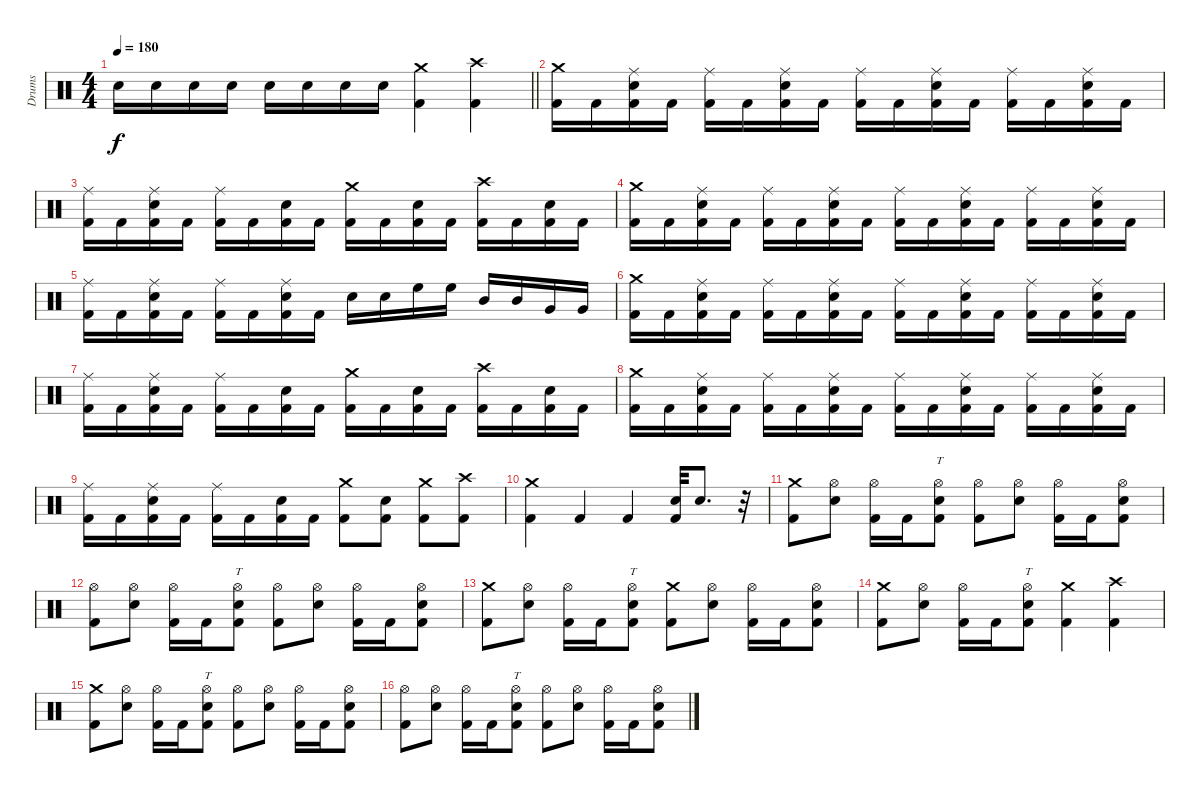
\track ("Drums" "Drums") {instrument percussion}
\staff {score}
\articulation defaults
\ts (4 4)
\tempo 180
\clef neutral
\barLineRight lightlight
\ks c "Electric Snare (hit)".16{dy f} "Electric Snare (hit)".16 "Electric Snare (hit)".16 "Electric Snare (hit)".16 "Electric Snare (hit)".16 "Electric Snare (hit)".16 "Electric Snare (hit)".16 "Electric Snare (hit)".16
("Crash medium (hit)" "Kick (hit) 2").4 ("Crash high (hit)" "Kick (hit) 2").4 |
("Crash medium (hit)" "Kick (hit) 2").16 "Kick (hit) 2".16 ("Ride (middle)" "Electric Snare (hit)" "Kick (hit) 2").16 "Kick (hit) 2".16 ("Ride (middle)" "Kick (hit) 2").16 "Kick (hit) 2".16 ("Ride (middle)" "Electric Snare (hit)" "Kick (hit) 2").16 "Kick (hit) 2".16 ("Ride (middle)" "Kick (hit) 2").16 "Kick (hit) 2".16 ("Ride (middle)" "Electric Snare (hit)" "Kick (hit) 2").16 "Kick (hit) 2".16 ("Ride (middle)" "Kick (hit) 2").16 "Kick (hit) 2".16 ("Ride (middle)" "Electric Snare (hit)" "Kick (hit) 2").16 "Kick (hit) 2".16 |
("Ride (middle)" "Kick (hit) 2").16 "Kick (hit) 2".16 ("Ride (middle)" "Electric Snare (hit)" "Kick (hit) 2").16 "Kick (hit) 2".16 ("Ride (middle)" "Kick (hit) 2").16 "Kick (hit) 2".16 ("Electric Snare (hit)" "Kick (hit) 2").16 "Kick (hit) 2".16 ("Crash medium (hit)" "Kick (hit) 2").16 "Kick (hit) 2".16 ("Electric Snare (hit)" "Kick (hit) 2").16 "Kick (hit) 2".16 ("Crash high (hit)" "Kick (hit) 2").16 "Kick (hit) 2".16 ("Electric Snare (hit)" "Kick (hit) 2").16 "Kick (hit) 2".16 |
("Crash medium (hit)" "Kick (hit) 2").16 "Kick (hit) 2".16 ("Ride (middle)" "Electric Snare (hit)" "Kick (hit) 2").16 "Kick (hit) 2".16 ("Ride (middle)" "Kick (hit) 2").16 "Kick (hit) 2".16 ("Ride (middle)" "Electric Snare (hit)" "Kick (hit) 2").16 "Kick (hit) 2".16 ("Ride (middle)" "Kick (hit) 2").16 "Kick (hit) 2".16 ("Ride (middle)" "Electric Snare (hit)" "Kick (hit) 2").16 "Kick (hit) 2".16 ("Ride (middle)" "Kick (hit) 2").16 "Kick (hit) 2".16 ("Ride (middle)" "Electric Snare (hit)" "Kick (hit) 2").16 "Kick (hit) 2".16 |
("Ride (middle)" "Kick (hit) 2").16 "Kick (hit) 2".16 ("Ride (middle)" "Electric Snare (hit)" "Kick (hit) 2").16 "Kick (hit) 2".16 ("Ride (middle)" "Kick (hit) 2").16 "Kick (hit) 2".16 ("Ride (middle)" "Electric Snare (hit)" "Kick (hit) 2").16 "Kick (hit) 2".16 "Electric Snare (hit)".16 "Electric Snare (hit)".16 "High Floor Tom (hit)".16 "High Floor Tom (hit)".16 "Mid Tom (hit)".16 "Mid Tom (hit)".16 "Very Low Tom (hit)".16 "Very Low Tom (hit)".16 |
("Crash medium (hit)" "Kick (hit) 2").16 "Kick (hit) 2".16 ("Ride (middle)" "Electric Snare (hit)" "Kick (hit) 2").16 "Kick (hit) 2".16 ("Ride (middle)" "Kick (hit) 2").16 "Kick (hit) 2".16 ("Ride (middle)" "Electric Snare (hit)" "Kick (hit) 2").16 "Kick (hit) 2".16 ("Ride (middle)" "Kick (hit) 2").16 "Kick (hit) 2".16 ("Ride (middle)" "Electric Snare (hit)" "Kick (hit) 2").16 "Kick (hit) 2".16 ("Ride (middle)" "Kick (hit) 2").16 "Kick (hit) 2".16 ("Ride (middle)" "Electric Snare (hit)" "Kick (hit) 2").16 "Kick (hit) 2".16 |
("Ride (middle)" "Kick (hit) 2").16 "Kick (hit) 2".16 ("Ride (middle)" "Electric Snare (hit)" "Kick (hit) 2").16 "Kick (hit) 2".16 ("Ride (middle)" "Kick (hit) 2").16 "Kick (hit) 2".16 ("Electric Snare (hit)" "Kick (hit) 2").16 "Kick (hit) 2".16 ("Crash medium (hit)" "Kick (hit) 2").16 "Kick (hit) 2".16 ("Electric Snare (hit)" "Kick (hit) 2").16 "Kick (hit) 2".16 ("Crash high (hit)" "Kick (hit) 2").16 "Kick (hit) 2".16 ("Electric Snare (hit)" "Kick (hit) 2").16 "Kick (hit) 2".16 |
("Crash medium (hit)" "Kick (hit) 2").16 "Kick (hit) 2".16 ("Ride (middle)" "Electric Snare (hit)" "Kick (hit) 2").16 "Kick (hit) 2".16 ("Ride (middle)" "Kick (hit) 2").16 "Kick (hit) 2".16 ("Ride (middle)" "Electric Snare (hit)" "Kick (hit) 2").16 "Kick (hit) 2".16 ("Ride (middle)" "Kick (hit) 2").16 "Kick (hit) 2".16 ("Ride (middle)" "Electric Snare (hit)" "Kick (hit) 2").16 "Kick (hit) 2".16 ("Ride (middle)" "Kick (hit) 2").16 "Kick (hit) 2".16 ("Ride (middle)" "Electric Snare (hit)" "Kick (hit) 2").16 "Kick (hit) 2".16 |
("Ride (middle)" "Kick (hit) 2").16 "Kick (hit) 2".16 ("Ride (middle)" "Electric Snare (hit)" "Kick (hit) 2").16 "Kick (hit) 2".16 ("Ride (middle)" "Kick (hit) 2").16 "Kick (hit) 2".16 ("Electric Snare (hit)" "Kick (hit) 2").16 "Kick (hit) 2".16 ("Crash medium (hit)" "Kick (hit) 2").8 ("Electric Snare (hit)" "Kick (hit) 2").8 ("Crash medium (hit)" "Kick (hit) 2").8 ("Crash high (hit)" "Kick (hit) 2").8 |
("Crash medium (hit)" "Kick (hit) 2").4 "Kick (hit) 2".4 "Kick (hit) 2".4 ("Electric Snare (hit)" "Kick (hit) 2").32 "Electric Snare (hit)".8{d} r.32 |
("Crash medium (hit)" "Kick (hit) 2").8 ("Hi-Hat (open)" "Electric Snare (hit)").8 ("Hi-Hat (open)" "Kick (hit) 2").16 "Kick (hit) 2".16 ("Hi-Hat (open)" "Electric Snare (hit)" "Kick (hit) 2").8{tt} ("Hi-Hat (open)" "Kick (hit) 2").8 ("Hi-Hat (open)" "Electric Snare (hit)").8 ("Hi-Hat (open)" "Kick (hit) 2").16 "Kick (hit) 2".16 ("Hi-Hat (open)" "Electric Snare (hit)" "Kick (hit) 2").8 |
("Hi-Hat (open)" "Kick (hit) 2").8 ("Hi-Hat (open)" "Electric Snare (hit)").8 ("Hi-Hat (open)" "Kick (hit) 2").16 "Kick (hit) 2".16 ("Hi-Hat (open)" "Electric Snare (hit)" "Kick (hit) 2").8{tt} ("Hi-Hat (open)" "Kick (hit) 2").8 ("Hi-Hat (open)" "Electric Snare (hit)").8 ("Hi-Hat (open)" "Kick (hit) 2").16 "Kick (hit) 2".16 ("Hi-Hat (open)" "Electric Snare (hit)" "Kick (hit) 2").8 |
("Crash medium (hit)" "Kick (hit) 2").8 ("Hi-Hat (open)" "Electric Snare (hit)").8 ("Hi-Hat (open)" "Kick (hit) 2").16 "Kick (hit) 2".16 ("Hi-Hat (open)" "Electric Snare (hit)" "Kick (hit) 2").8{tt} ("Crash medium (hit)" "Kick (hit) 2").8 ("Hi-Hat (open)" "Electric Snare (hit)").8 ("Hi-Hat (open)" "Kick (hit) 2").16 "Kick (hit) 2".16 ("Hi-Hat (open)" "Electric Snare (hit)" "Kick (hit) 2").8 |
("Crash medium (hit)" "Kick (hit) 2").8 ("Hi-Hat (open)" "Electric Snare (hit)").8 ("Hi-Hat (open)" "Kick (hit) 2").16 "Kick (hit) 2".16 ("Hi-Hat (open)" "Electric Snare (hit)" "Kick (hit) 2").8{tt} ("Crash medium (hit)" "Kick (hit) 2").4 ("Crash high (hit)" "Kick (hit) 2").4 |
("Crash medium (hit)" "Kick (hit) 2").8 ("Hi-Hat (open)" "Electric Snare (hit)").8 ("Hi-Hat (open)" "Kick (hit) 2").16 "Kick (hit) 2".16 ("Hi-Hat (open)" "Electric Snare (hit)" "Kick (hit) 2").8{tt} ("Hi-Hat (open)" "Kick (hit) 2").8 ("Hi-Hat (open)" "Electric Snare (hit)").8 ("Hi-Hat (open)" "Kick (hit) 2").16 "Kick (hit) 2".16 ("Hi-Hat (open)" "Electric Snare (hit)" "Kick (hit) 2").8 |
("Hi-Hat (open)" "Kick (hit) 2").8 ("Hi-Hat (open)" "Electric Snare (hit)").8 ("Hi-Hat (open)" "Kick (hit) 2").16 "Kick (hit) 2".16 ("Hi-Hat (open)" "Electric Snare (hit)" "Kick (hit) 2").8{tt} ("Hi-Hat (open)" "Kick (hit) 2").8 ("Hi-Hat (open)" "Electric Snare (hit)").8 ("Hi-Hat (open)" "Kick (hit) 2").16 "Kick (hit) 2".16 ("Hi-Hat (open)" "Electric Snare (hit)" "Kick (hit) 2").8
